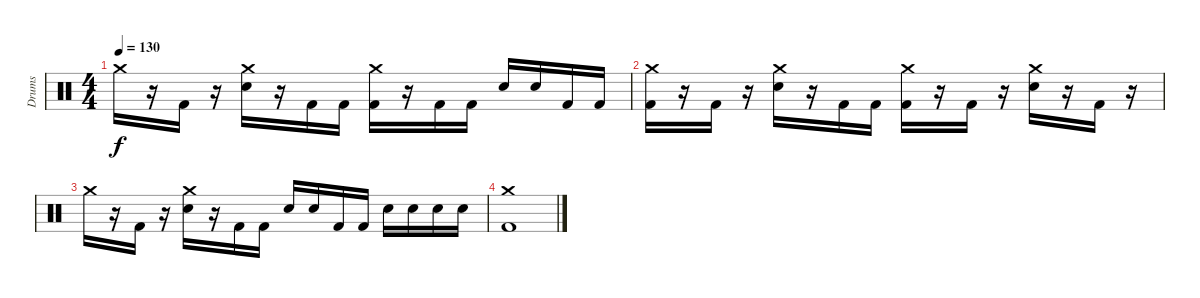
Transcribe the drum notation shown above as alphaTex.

\track ("Drums" "Drums") {instrument percussion}
\staff {score}
\articulation defaults
\ts (4 4)
\tempo 130
\clef neutral
\ks c "Crash medium (hit)".16{dy f}
r.16 "Kick (hit) 2".16 r.16 ("Crash medium (hit)" "Electric Snare (hit)").16 r.16 "Kick (hit) 2".16 "Kick (hit) 2".16 ("Crash medium (hit)" "Kick (hit) 2").16 r.16 "Kick (hit) 2".16 "Kick (hit) 2".16 "Electric Snare (hit)".16 "Electric Snare (hit)".16 "Kick (hit) 2".16 "Kick (hit) 2".16 |
("Crash medium (hit)" "Kick (hit) 2").16 r.16 "Kick (hit) 2".16 r.16 ("Crash medium (hit)" "Electric Snare (hit)").16 r.16 "Kick (hit) 2".16 "Kick (hit) 2".16 ("Crash medium (hit)" "Kick (hit) 2").16 r.16 "Kick (hit) 2".16 r.16 ("Crash medium (hit)" "Electric Snare (hit)").16 r.16 "Kick (hit) 2".16 r.16 |
"Crash medium (hit)".16 r.16 "Kick (hit) 2".16 r.16 ("Crash medium (hit)" "Electric Snare (hit)").16 r.16 "Kick (hit) 2".16 "Kick (hit) 2".16 "Electric Snare (hit)".16 "Electric Snare (hit)".16 "Kick (hit) 2".16 "Kick (hit) 2".16 "Electric Snare (hit)".16 "Electric Snare (hit)".16 "Electric Snare (hit)".16 "Electric Snare (hit)".16 |
("Crash medium (hit)" "Kick (hit) 2").1
